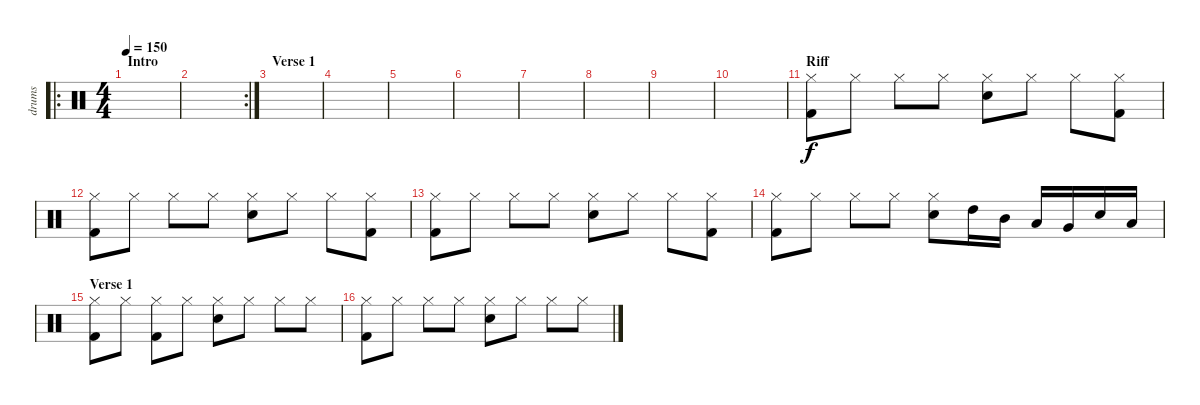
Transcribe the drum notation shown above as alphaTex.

\track ("drums" "drums") {instrument percussion}
\staff {score}
\articulation defaults
\ro
\ts (4 4)
\section ("" "Intro")
\tempo 150
\clef neutral
\ks c
|
\rc 2
|
\section ("" "Verse 1")
|
|
|
|
|
|
|
|
\section ("" "Riff")
("Hi-Hat (closed)" "Kick (hit) 2").8 "Hi-Hat (closed)".8 "Hi-Hat (closed)".8 "Hi-Hat (closed)".8 ("Hi-Hat (closed)" "Snare (hit) 2").8 "Hi-Hat (closed)".8 "Hi-Hat (closed)".8 ("Hi-Hat (closed)" "Kick (hit) 2").8 |
("Hi-Hat (closed)" "Kick (hit) 2").8 "Hi-Hat (closed)".8 "Hi-Hat (closed)".8 "Hi-Hat (closed)".8 ("Hi-Hat (closed)" "Snare (hit) 2").8 "Hi-Hat (closed)".8 "Hi-Hat (closed)".8 ("Hi-Hat (closed)" "Kick (hit) 2").8 |
("Hi-Hat (closed)" "Kick (hit) 2").8 "Hi-Hat (closed)".8 "Hi-Hat (closed)".8 "Hi-Hat (closed)".8 ("Hi-Hat (closed)" "Snare (hit) 2").8 "Hi-Hat (closed)".8 "Hi-Hat (closed)".8 ("Hi-Hat (closed)" "Kick (hit) 2").8 |
("Hi-Hat (closed)" "Kick (hit) 2").8 "Hi-Hat (closed)".8 "Hi-Hat (closed)".8 "Hi-Hat (closed)".8 ("Hi-Hat (closed)" "Snare (hit) 2").8 "High Tom (hit)".16 "Mid Tom (hit)".16 "Low Tom (hit)".16 "Very Low Tom (hit)".16 "Snare (hit) 2".16 "Low Floor Tom (hit)".16 |
\section ("" "Verse 1")
("Hi-Hat (closed)" "Kick (hit) 2").8 "Hi-Hat (closed)".8 ("Hi-Hat (closed)" "Kick (hit) 2").8 "Hi-Hat (closed)".8 ("Hi-Hat (closed)" "Snare (hit) 2").8 "Hi-Hat (closed)".8 "Hi-Hat (closed)".8 "Hi-Hat (closed)".8 |
("Hi-Hat (closed)" "Kick (hit) 2").8 "Hi-Hat (closed)".8 "Hi-Hat (closed)".8 "Hi-Hat (closed)".8 ("Hi-Hat (closed)" "Snare (hit) 2").8 "Hi-Hat (closed)".8 "Hi-Hat (closed)".8 "Hi-Hat (closed)".8
